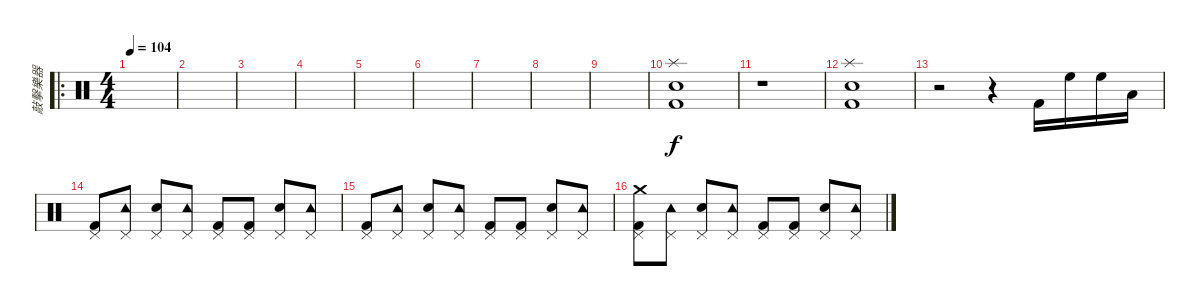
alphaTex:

\track ("敲擊樂器" "敲擊樂器") {instrument percussion}
\staff {score}
\articulation defaults
\ro
\ts (4 4)
\tempo 104
\clef neutral
\ks c
|
|
|
|
|
|
|
|
|
("Splash (hit)" "Electric Snare (hit)" "Kick (hit) 2").1 |
r.1 |
("Splash (hit)" "Electric Snare (hit)" "Kick (hit) 2").1 |
r.2 r.4 "Kick (hit) 2".16 "High Floor Tom (hit)".16 "High Floor Tom (hit)".16 "Low Tom (hit)".16 |
("Kick (hit) 2" "Pedal Hi-Hat (hit)").8 ("Tambourine (hit)" "Pedal Hi-Hat (hit)").8 ("Electric Snare (hit)" "Pedal Hi-Hat (hit)").8 ("Tambourine (hit)" "Pedal Hi-Hat (hit)").8 ("Kick (hit) 2" "Pedal Hi-Hat (hit)").8 ("Kick (hit) 2" "Pedal Hi-Hat (hit)").8 ("Electric Snare (hit)" "Pedal Hi-Hat (hit)").8 ("Tambourine (hit)" "Pedal Hi-Hat (hit)").8 |
("Kick (hit) 2" "Pedal Hi-Hat (hit)").8 ("Tambourine (hit)" "Pedal Hi-Hat (hit)").8 ("Electric Snare (hit)" "Pedal Hi-Hat (hit)").8 ("Tambourine (hit)" "Pedal Hi-Hat (hit)").8 ("Kick (hit) 2" "Pedal Hi-Hat (hit)").8 ("Kick (hit) 2" "Pedal Hi-Hat (hit)").8 ("Electric Snare (hit)" "Pedal Hi-Hat (hit)").8 ("Tambourine (hit)" "Pedal Hi-Hat (hit)").8 |
("Crash medium (hit)" "Kick (hit) 2" "Pedal Hi-Hat (hit)").8 ("Tambourine (hit)" "Pedal Hi-Hat (hit)").8 ("Electric Snare (hit)" "Pedal Hi-Hat (hit)").8 ("Tambourine (hit)" "Pedal Hi-Hat (hit)").8 ("Kick (hit) 2" "Pedal Hi-Hat (hit)").8 ("Kick (hit) 2" "Pedal Hi-Hat (hit)").8 ("Electric Snare (hit)" "Pedal Hi-Hat (hit)").8 ("Tambourine (hit)" "Pedal Hi-Hat (hit)").8
